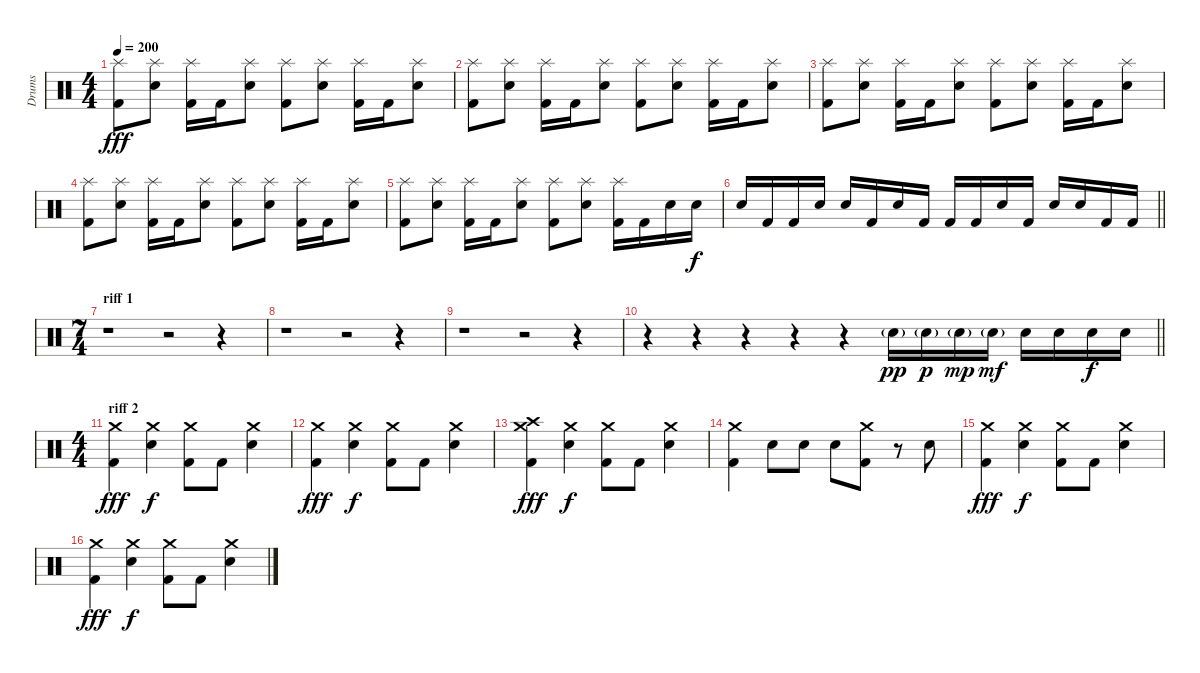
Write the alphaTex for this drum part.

\track ("Drums" "Drums") {instrument percussion}
\staff {score}
\articulation defaults
\ts (4 4)
\tempo 200
\clef neutral
\ks c
("Splash (hit)" "Kick (hit) 2").8{dy fff} ("Splash (hit)" "Electric Snare (hit)").8 ("Splash (hit)" "Kick (hit) 2").16 "Kick (hit) 2".16 ("Splash (hit)" "Electric Snare (hit)").8 ("Splash (hit)" "Kick (hit) 2").8 ("Splash (hit)" "Electric Snare (hit)").8 ("Splash (hit)" "Kick (hit) 2").16 "Kick (hit) 2".16 ("Splash (hit)" "Electric Snare (hit)").8 |
("Splash (hit)" "Kick (hit) 2").8 ("Splash (hit)" "Electric Snare (hit)").8 ("Splash (hit)" "Kick (hit) 2").16 "Kick (hit) 2".16 ("Splash (hit)" "Electric Snare (hit)").8 ("Splash (hit)" "Kick (hit) 2").8 ("Splash (hit)" "Electric Snare (hit)").8 ("Splash (hit)" "Kick (hit) 2").16 "Kick (hit) 2".16 ("Splash (hit)" "Electric Snare (hit)").8 |
("Splash (hit)" "Kick (hit) 2").8 ("Splash (hit)" "Electric Snare (hit)").8 ("Splash (hit)" "Kick (hit) 2").16 "Kick (hit) 2".16 ("Splash (hit)" "Electric Snare (hit)").8 ("Splash (hit)" "Kick (hit) 2").8 ("Splash (hit)" "Electric Snare (hit)").8 ("Splash (hit)" "Kick (hit) 2").16 "Kick (hit) 2".16 ("Splash (hit)" "Electric Snare (hit)").8 |
("Splash (hit)" "Kick (hit) 2").8 ("Splash (hit)" "Electric Snare (hit)").8 ("Splash (hit)" "Kick (hit) 2").16 "Kick (hit) 2".16 ("Splash (hit)" "Electric Snare (hit)").8 ("Splash (hit)" "Kick (hit) 2").8 ("Splash (hit)" "Electric Snare (hit)").8 ("Splash (hit)" "Kick (hit) 2").16 "Kick (hit) 2".16 ("Splash (hit)" "Electric Snare (hit)").8 |
("Splash (hit)" "Kick (hit) 2").8 ("Splash (hit)" "Electric Snare (hit)").8 ("Splash (hit)" "Kick (hit) 2").16 "Kick (hit) 2".16 ("Splash (hit)" "Electric Snare (hit)").8 ("Splash (hit)" "Kick (hit) 2").8 ("Splash (hit)" "Electric Snare (hit)").8 ("Splash (hit)" "Kick (hit) 2").16 "Kick (hit) 2".16 "Electric Snare (hit)".16 "Electric Snare (hit)".16{dy f} |
\barLineRight lightlight "Electric Snare (hit)".16 "Kick (hit) 2".16 "Kick (hit) 2".16 "Electric Snare (hit)".16 "Electric Snare (hit)".16 "Kick (hit) 2".16 "Electric Snare (hit)".16 "Kick (hit) 2".16 "Kick (hit) 2".16 "Kick (hit) 2".16 "Electric Snare (hit)".16 "Kick (hit) 2".16 "Electric Snare (hit)".16 "Electric Snare (hit)".16 "Kick (hit) 2".16 "Kick (hit) 2".16
|
\ts (7 4)
\section ("" "riff 1")
r.1 r.2 r.4 |
r.1 r.2 r.4 |
r.1 r.2 r.4 |
\barLineRight lightlight
r.4 r.4 r.4 r.4 r.4 "Electric Snare (hit)"{g}.16{dy pp} "Electric Snare (hit)"{g}.16{dy p} "Electric Snare (hit)"{g}.16{dy mp} "Electric Snare (hit)"{g}.16{dy mf} "Electric Snare (hit)".16 "Electric Snare (hit)".16 "Electric Snare (hit)".16{dy f} "Electric Snare (hit)".16 |
\ts (4 4)
\section ("" "riff 2")
("Crash medium (hit)" "Kick (hit) 2").4{dy fff} ("Crash medium (hit)" "Electric Snare (hit)").4{dy f} ("Crash medium (hit)" "Kick (hit) 2").8 "Kick (hit) 2".8 ("Crash medium (hit)" "Electric Snare (hit)").4 |
("Crash medium (hit)" "Kick (hit) 2").4{dy fff} ("Crash medium (hit)" "Electric Snare (hit)").4{dy f} ("Crash medium (hit)" "Kick (hit) 2").8 "Kick (hit) 2".8 ("Crash medium (hit)" "Electric Snare (hit)").4 |
("Crash medium (hit)" "Crash high (hit)" "Kick (hit) 2").4{dy fff} ("Crash medium (hit)" "Electric Snare (hit)").4{dy f} ("Crash medium (hit)" "Kick (hit) 2").8 "Kick (hit) 2".8 ("Crash medium (hit)" "Electric Snare (hit)").4 |
("Crash medium (hit)" "Kick (hit) 2").4 "Electric Snare (hit)".8 "Electric Snare (hit)".8 "Electric Snare (hit)".8 ("Crash medium (hit)" "Kick (hit) 2").8 r.8 "Electric Snare (hit)".8 |
("Crash medium (hit)" "Kick (hit) 2").4{dy fff} ("Crash medium (hit)" "Electric Snare (hit)").4{dy f} ("Crash medium (hit)" "Kick (hit) 2").8 "Kick (hit) 2".8 ("Crash medium (hit)" "Electric Snare (hit)").4 |
("Crash medium (hit)" "Kick (hit) 2").4{dy fff} ("Crash medium (hit)" "Electric Snare (hit)").4{dy f} ("Crash medium (hit)" "Kick (hit) 2").8 "Kick (hit) 2".8 ("Crash medium (hit)" "Electric Snare (hit)").4
